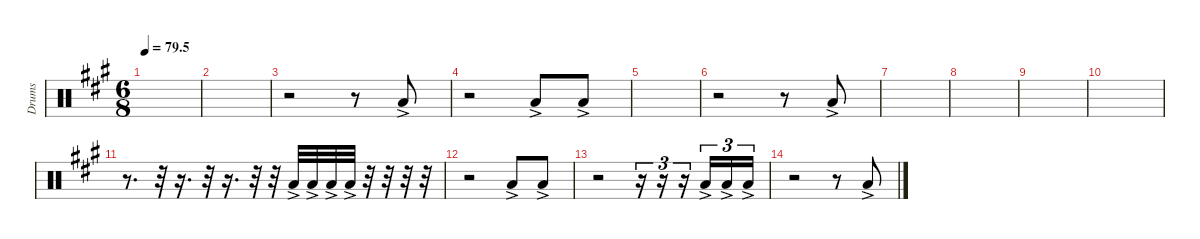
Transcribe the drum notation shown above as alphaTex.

\defaultSystemsLayout 4
\hideDynamics
\bracketExtendMode nobrackets
\otherSystemsTrackNameOrientation horizontal
\track ("Tom 03" "Drums") {instrument percussion}
\staff {score}
\articulation defaults
\ts (6 8)
\tempo
79.5
\accidentals auto
\clef neutral
\ottava regular
\simile none
\scale
0.333333
\ks a
|
\scale
0.333333 |
\scale
0.333333 r.2 r.8 "Low Tom (hit)"{ac acc forcenatural}.8 |
\scale
0.333333 r.2 "Low Tom (hit)"{ac acc forcenatural}.8 "Low Tom (hit)"{ac acc forcenatural}.8 |
\scale
0.333333 |
\scale
0.333333 r.2 r.8 "Low Tom (hit)"{ac acc forcenatural}.8 |
\scale
0.333333 |
\scale
0.333333 |
\scale
0.333333 |
\scale
0.333333 |
\scale
0.333333 r.8{d} r.32 r.16{d} r.32 r.16{d} r.32 r.32 "Low Tom (hit)"{ac acc forcenatural}.32 "Low Tom (hit)"{ac acc forcenatural}.32 "Low Tom (hit)"{ac acc forcenatural}.32 "Low Tom (hit)"{ac acc forcenatural}.32 r.32 r.32 r.32 r.32 |
\scale
0.333333 r.2 "Low Tom (hit)"{ac acc forcenatural}.8 "Low Tom (hit)"{ac acc forcenatural}.8 |
\scale
0.333333 r.2 r.16{tu (3 2)} r.16{tu (3 2)} r.16{tu (3 2)} "Low Tom (hit)"{ac acc forcenatural}.16{tu (3 2)} "Low Tom (hit)"{ac acc forcenatural}.16{tu (3 2)} "Low Tom (hit)"{ac acc forcenatural}.16{tu (3 2)} |
\scale
0.333333 r.2 r.8 "Low Tom (hit)"{ac acc forcenatural}.8 |
\scale
0.333333 |
\scale
0.333333
